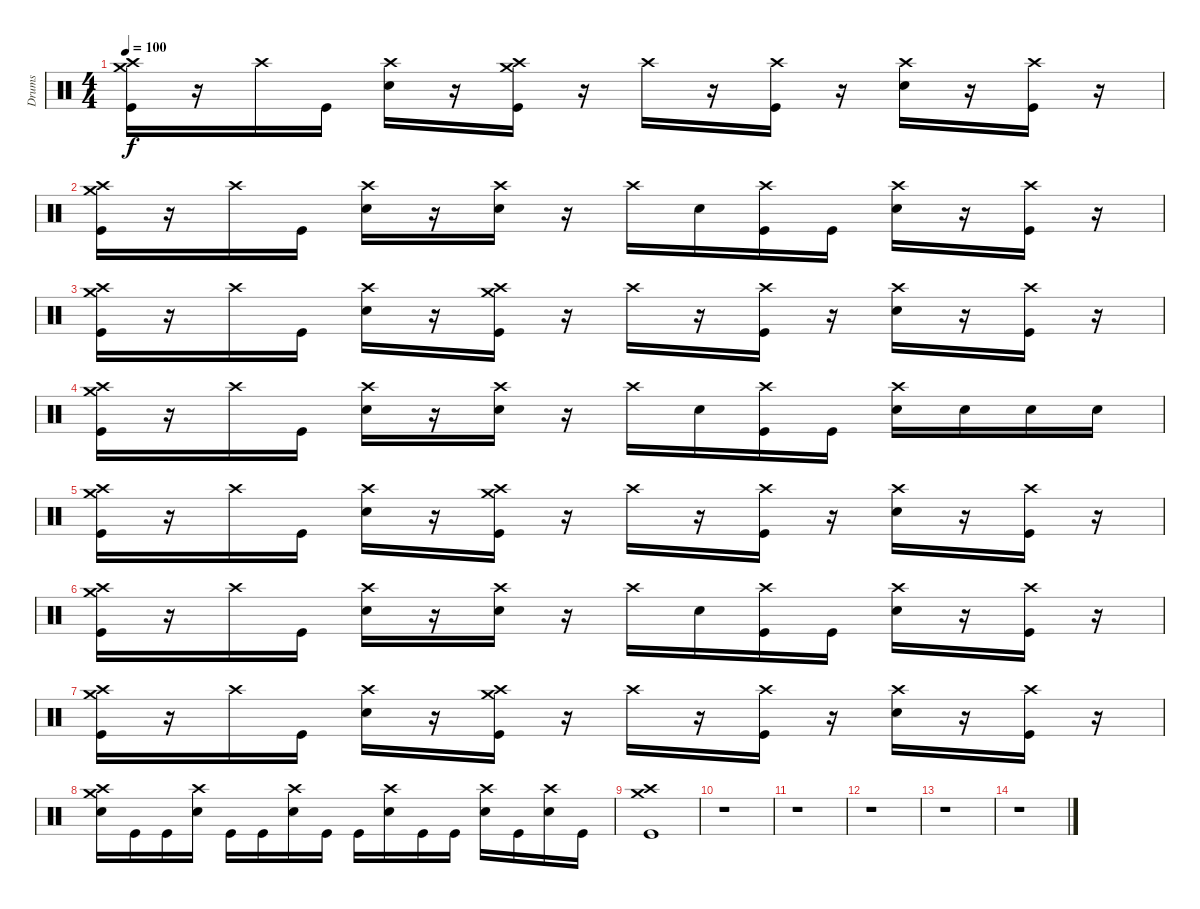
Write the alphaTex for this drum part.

\track ("Drums" "Drums") {instrument percussion}
\staff {score}
\articulation defaults
\ts (4 4)
\tempo 100
\clef neutral
\ks c
("Crash medium (hit)" "Crash high (hit)" "Kick (hit)").16{dy f} r.16 "Crash high (hit)".16 "Kick (hit)".16 ("Crash high (hit)" "Snare (hit) 2").16 r.16 ("Crash medium (hit)" "Crash high (hit)" "Kick (hit)").16 r.16 "Crash high (hit)".16 r.16 ("Crash high (hit)" "Kick (hit)").16 r.16 ("Crash high (hit)" "Snare (hit) 2").16 r.16 ("Crash high (hit)" "Kick (hit)").16 r.16 |
("Crash medium (hit)" "Crash high (hit)" "Kick (hit)").16 r.16 "Crash high (hit)".16 "Kick (hit)".16 ("Crash high (hit)" "Snare (hit) 2").16 r.16 ("Crash high (hit)" "Snare (hit) 2").16 r.16 "Crash high (hit)".16 "Snare (hit) 2".16 ("Crash high (hit)" "Kick (hit)").16 "Kick (hit)".16 ("Crash high (hit)" "Snare (hit) 2").16 r.16 ("Crash high (hit)" "Kick (hit)").16 r.16 |
("Crash medium (hit)" "Crash high (hit)" "Kick (hit)").16 r.16 "Crash high (hit)".16 "Kick (hit)".16 ("Crash high (hit)" "Snare (hit) 2").16 r.16 ("Crash medium (hit)" "Crash high (hit)" "Kick (hit)").16 r.16 "Crash high (hit)".16 r.16 ("Crash high (hit)" "Kick (hit)").16 r.16 ("Crash high (hit)" "Snare (hit) 2").16 r.16 ("Crash high (hit)" "Kick (hit)").16 r.16 |
("Crash medium (hit)" "Crash high (hit)" "Kick (hit)").16 r.16 "Crash high (hit)".16 "Kick (hit)".16 ("Crash high (hit)" "Snare (hit) 2").16 r.16 ("Crash high (hit)" "Snare (hit) 2").16 r.16 "Crash high (hit)".16 "Snare (hit) 2".16 ("Crash high (hit)" "Kick (hit)").16 "Kick (hit)".16 ("Crash high (hit)" "Snare (hit) 2").16 "Snare (hit) 2".16 "Snare (hit) 2".16 "Snare (hit) 2".16 |
("Crash medium (hit)" "Crash high (hit)" "Kick (hit)").16 r.16 "Crash high (hit)".16 "Kick (hit)".16 ("Crash high (hit)" "Snare (hit) 2").16 r.16 ("Crash medium (hit)" "Crash high (hit)" "Kick (hit)").16 r.16 "Crash high (hit)".16 r.16 ("Crash high (hit)" "Kick (hit)").16 r.16 ("Crash high (hit)" "Snare (hit) 2").16 r.16 ("Crash high (hit)" "Kick (hit)").16 r.16 |
("Crash medium (hit)" "Crash high (hit)" "Kick (hit)").16 r.16 "Crash high (hit)".16 "Kick (hit)".16 ("Crash high (hit)" "Snare (hit) 2").16 r.16 ("Crash high (hit)" "Snare (hit) 2").16 r.16 "Crash high (hit)".16 "Snare (hit) 2".16 ("Crash high (hit)" "Kick (hit)").16 "Kick (hit)".16 ("Crash high (hit)" "Snare (hit) 2").16 r.16 ("Crash high (hit)" "Kick (hit)").16 r.16 |
("Crash medium (hit)" "Crash high (hit)" "Kick (hit)").16 r.16 "Crash high (hit)".16 "Kick (hit)".16 ("Crash high (hit)" "Snare (hit) 2").16 r.16 ("Crash medium (hit)" "Crash high (hit)" "Kick (hit)").16 r.16 "Crash high (hit)".16 r.16 ("Crash high (hit)" "Kick (hit)").16 r.16 ("Crash high (hit)" "Snare (hit) 2").16 r.16 ("Crash high (hit)" "Kick (hit)").16 r.16 |
("Crash medium (hit)" "Crash high (hit)" "Snare (hit) 2").16 "Kick (hit)".16 "Kick (hit)".16 ("Crash high (hit)" "Snare (hit) 2").16 "Kick (hit)".16 "Kick (hit)".16 ("Crash high (hit)" "Snare (hit) 2").16 "Kick (hit)".16 "Kick (hit)".16 ("Crash high (hit)" "Snare (hit) 2").16 "Kick (hit)".16 "Kick (hit)".16 ("Crash high (hit)" "Snare (hit) 2").16 "Kick (hit)".16 ("Crash high (hit)" "Snare (hit) 2").16 "Kick (hit)".16 |
("Crash medium (hit)" "Crash high (hit)" "Kick (hit)").1 |
r.1 |
r.1 |
r.1 |
r.1 |
r.1
